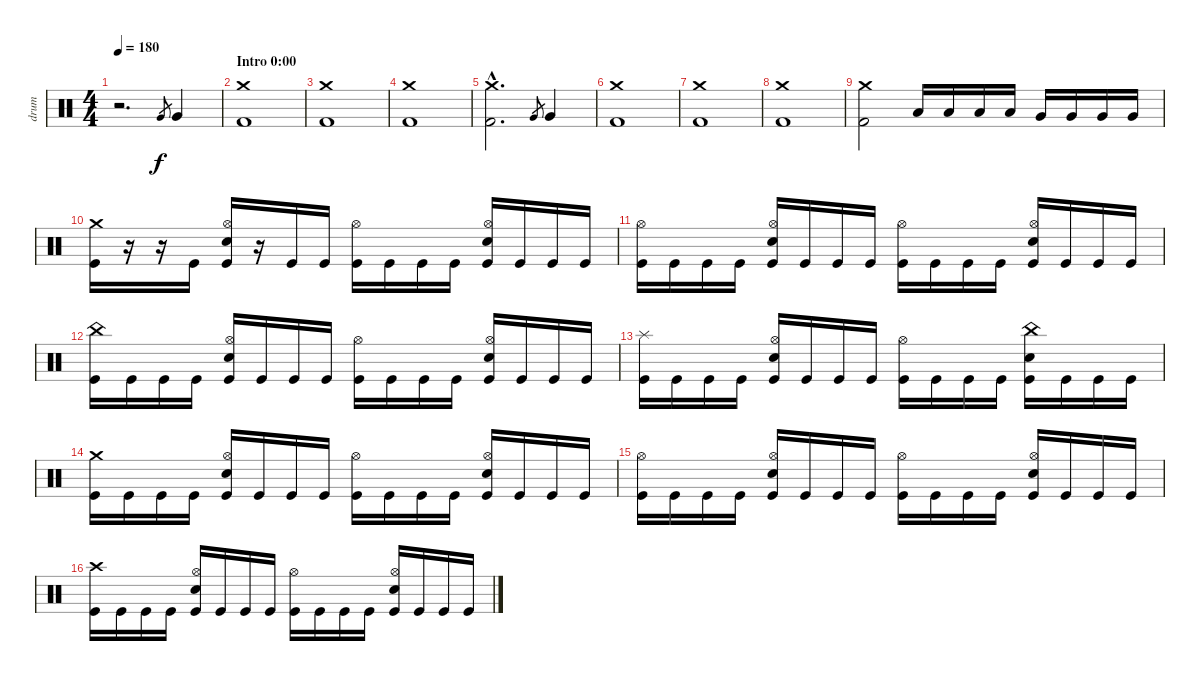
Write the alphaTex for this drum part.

\track ("drum" "drum") {instrument percussion}
\staff {score}
\articulation defaults
\ts (4 4)
\tempo 180
\clef neutral
\ks c
r.2{d dy f} "Very Low Tom (hit)".8{gr} "Very Low Tom (hit)".4 |
\section ("" "Intro 0:00")
("Crash medium (hit)" "Kick (hit) 2").1 |
("Crash medium (hit)" "Kick (hit) 2").1 |
("Crash medium (hit)" "Kick (hit) 2").1 |
("Crash medium (hit)"{hac} "Kick (hit) 2"{hac}).2{d} "Very Low Tom (hit)".8{gr} "Very Low Tom (hit)".4 |
("Crash medium (hit)" "Kick (hit) 2").1 |
("Crash medium (hit)" "Kick (hit) 2").1 |
("Crash medium (hit)" "Kick (hit) 2").1 |
("Crash medium (hit)" "Kick (hit) 2").2 "Low Tom (hit)".16 "Low Tom (hit)".16 "Low Tom (hit)".16 "Low Tom (hit)".16 "Very Low Tom (hit)".16 "Very Low Tom (hit)".16 "Very Low Tom (hit)".16 "Very Low Tom (hit)".16 |
("Crash medium (hit)" "Kick (hit)").16 r.16 r.16 "Kick (hit)".16 ("Hi-Hat (open)" "Snare (hit) 2" "Kick (hit)").16 r.16 "Kick (hit)".16 "Kick (hit)".16 ("Hi-Hat (open)" "Kick (hit)").16 "Kick (hit)".16 "Kick (hit)".16 "Kick (hit)".16 ("Hi-Hat (open)" "Snare (hit) 2" "Kick (hit)").16 "Kick (hit)".16 "Kick (hit)".16 "Kick (hit)".16 |
("Hi-Hat (open)" "Kick (hit)").16 "Kick (hit)".16 "Kick (hit)".16 "Kick (hit)".16 ("Hi-Hat (open)" "Snare (hit) 2" "Kick (hit)").16 "Kick (hit)".16 "Kick (hit)".16 "Kick (hit)".16 ("Hi-Hat (open)" "Kick (hit)").16 "Kick (hit)".16 "Kick (hit)".16 "Kick (hit)".16 ("Hi-Hat (open)" "Snare (hit) 2" "Kick (hit)").16 "Kick (hit)".16 "Kick (hit)".16 "Kick (hit)".16 |
("China (hit)" "Kick (hit)").16 "Kick (hit)".16 "Kick (hit)".16 "Kick (hit)".16 ("Hi-Hat (open)" "Snare (hit) 2" "Kick (hit)").16 "Kick (hit)".16 "Kick (hit)".16 "Kick (hit)".16 ("Hi-Hat (open)" "Kick (hit)").16 "Kick (hit)".16 "Kick (hit)".16 "Kick (hit)".16 ("Hi-Hat (open)" "Snare (hit) 2" "Kick (hit)").16 "Kick (hit)".16 "Kick (hit)".16 "Kick (hit)".16 |
("Splash (hit)" "Kick (hit)").16 "Kick (hit)".16 "Kick (hit)".16 "Kick (hit)".16 ("Hi-Hat (open)" "Snare (hit) 2" "Kick (hit)").16 "Kick (hit)".16 "Kick (hit)".16 "Kick (hit)".16 ("Hi-Hat (open)" "Kick (hit)").16 "Kick (hit)".16 "Kick (hit)".16 "Kick (hit)".16 ("China (hit)" "Snare (hit) 2" "Kick (hit)").16 "Kick (hit)".16 "Kick (hit)".16 "Kick (hit)".16 |
("Crash medium (hit)" "Kick (hit)").16 "Kick (hit)".16 "Kick (hit)".16 "Kick (hit)".16 ("Hi-Hat (open)" "Snare (hit) 2" "Kick (hit)").16 "Kick (hit)".16 "Kick (hit)".16 "Kick (hit)".16 ("Hi-Hat (open)" "Kick (hit)").16 "Kick (hit)".16 "Kick (hit)".16 "Kick (hit)".16 ("Hi-Hat (open)" "Snare (hit) 2" "Kick (hit)").16 "Kick (hit)".16 "Kick (hit)".16 "Kick (hit)".16 |
("Hi-Hat (open)" "Kick (hit)").16 "Kick (hit)".16 "Kick (hit)".16 "Kick (hit)".16 ("Hi-Hat (open)" "Snare (hit) 2" "Kick (hit)").16 "Kick (hit)".16 "Kick (hit)".16 "Kick (hit)".16 ("Hi-Hat (open)" "Kick (hit)").16 "Kick (hit)".16 "Kick (hit)".16 "Kick (hit)".16 ("Hi-Hat (open)" "Snare (hit) 2" "Kick (hit)").16 "Kick (hit)".16 "Kick (hit)".16 "Kick (hit)".16 |
("Crash high (hit)" "Kick (hit)").16 "Kick (hit)".16 "Kick (hit)".16 "Kick (hit)".16 ("Hi-Hat (open)" "Snare (hit) 2" "Kick (hit)").16 "Kick (hit)".16 "Kick (hit)".16 "Kick (hit)".16 ("Hi-Hat (open)" "Kick (hit)").16 "Kick (hit)".16 "Kick (hit)".16 "Kick (hit)".16 ("Hi-Hat (open)" "Snare (hit) 2" "Kick (hit)").16 "Kick (hit)".16 "Kick (hit)".16 "Kick (hit)".16
